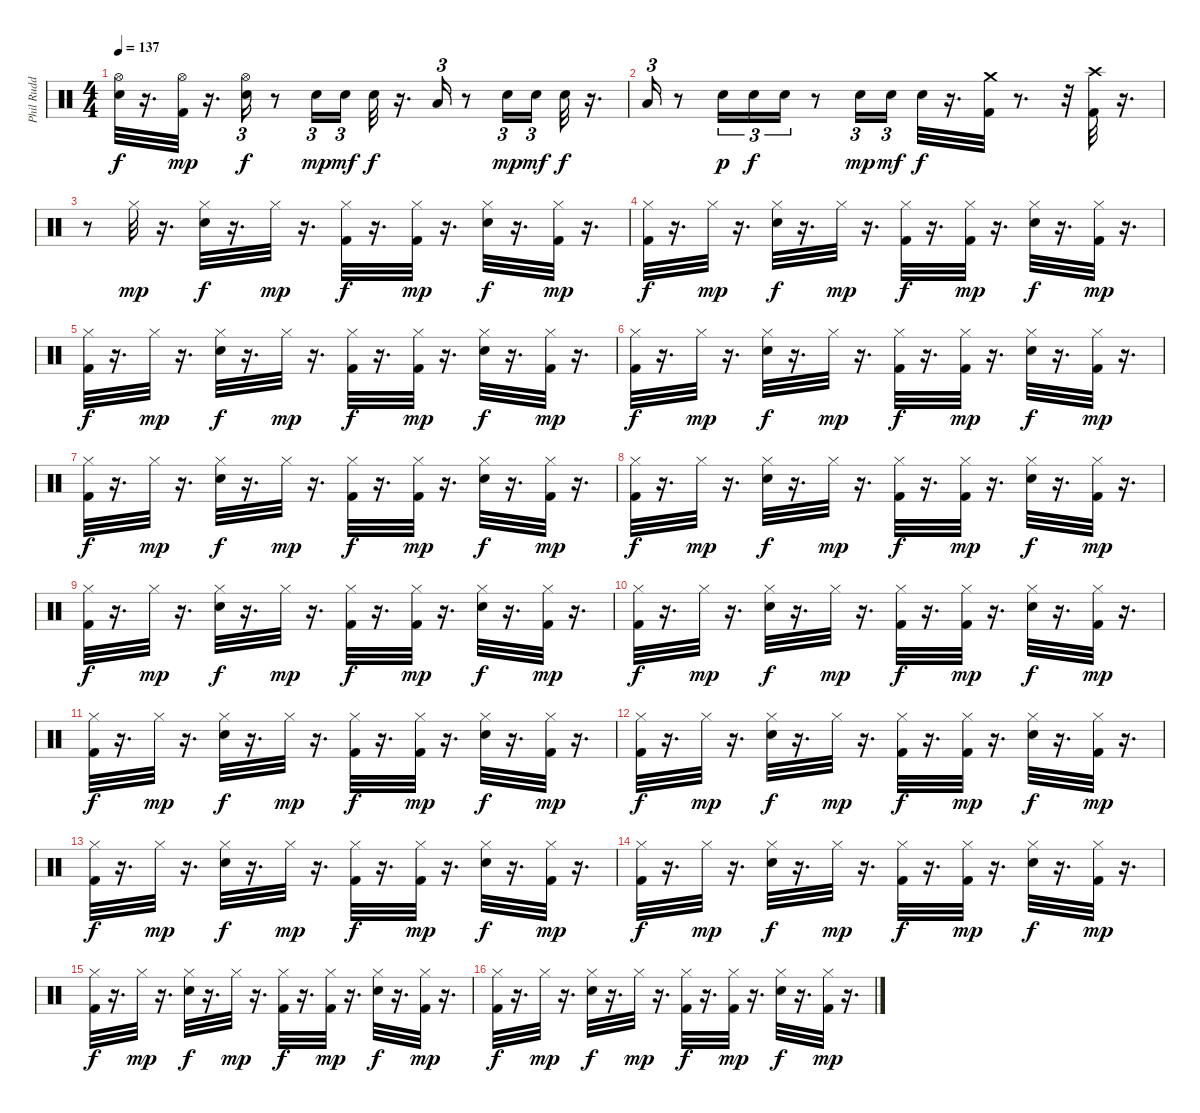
\track ("Phil Rudd" "Phil Rudd") {instrument percussion}
\staff
\articulation defaults
\ts (4 4)
\tempo 137
\clef neutral
\ks c
("Hi-Hat (open)" "Electric Snare (hit)").32{dy f} r.16{d} ("Hi-Hat (open)" "Kick (hit) 2").32{dy mp} r.16{d} ("Hi-Hat (open)" "Electric Snare (hit)").16{tu (3 2) dy f} r.8 "Electric Snare (hit)".16{tu (3 2) dy mp} "Electric Snare (hit)".16{tu (3 2) dy mf} "Electric Snare (hit)".32{dy f} r.16{d} "Low Tom (hit)".16{tu (3 2)} r.8 "Electric Snare (hit)".16{tu (3 2) dy mp} "Electric Snare (hit)".16{tu (3 2) dy mf beam splitsecondary} "Electric Snare (hit)".32{dy f} r.16{d} |
"Low Tom (hit)".16{tu (3 2)} r.8 "Electric Snare (hit)".16{tu (3 2) dy p} "Electric Snare (hit)".16{tu (3 2) dy f} "Electric Snare (hit)".16{tu (3 2)} r.8 "Electric Snare (hit)".16{tu (3 2) dy mp} "Electric Snare (hit)".16{tu (3 2) dy mf} "Electric Snare (hit)".32{dy f} r.16{d} ("Crash medium (hit)" "Kick (hit) 2").32 r.8{d} r.32 ("Crash high (hit)" "Kick (hit) 2").32 r.16{d} |
r.8 "Hi-Hat (closed)".32{dy mp} r.16{d} ("Hi-Hat (closed)" "Electric Snare (hit)").32{dy f} r.16{d} "Hi-Hat (closed)".32{dy mp} r.16{d} ("Hi-Hat (closed)" "Kick (hit) 2").32{dy f} r.16{d} ("Hi-Hat (closed)" "Kick (hit) 2").32{dy mp} r.16{d} ("Hi-Hat (closed)" "Electric Snare (hit)").32{dy f} r.16{d} ("Hi-Hat (closed)" "Kick (hit) 2").32{dy mp} r.16{d} |
("Hi-Hat (closed)" "Kick (hit) 2").32{dy f} r.16{d} "Hi-Hat (closed)".32{dy mp} r.16{d} ("Hi-Hat (closed)" "Electric Snare (hit)").32{dy f} r.16{d} "Hi-Hat (closed)".32{dy mp} r.16{d} ("Hi-Hat (closed)" "Kick (hit) 2").32{dy f} r.16{d} ("Hi-Hat (closed)" "Kick (hit) 2").32{dy mp} r.16{d} ("Hi-Hat (closed)" "Electric Snare (hit)").32{dy f} r.16{d} ("Hi-Hat (closed)" "Kick (hit) 2").32{dy mp} r.16{d} |
("Hi-Hat (closed)" "Kick (hit) 2").32{dy f} r.16{d} "Hi-Hat (closed)".32{dy mp} r.16{d} ("Hi-Hat (closed)" "Electric Snare (hit)").32{dy f} r.16{d} "Hi-Hat (closed)".32{dy mp} r.16{d} ("Hi-Hat (closed)" "Kick (hit) 2").32{dy f} r.16{d} ("Hi-Hat (closed)" "Kick (hit) 2").32{dy mp} r.16{d} ("Hi-Hat (closed)" "Electric Snare (hit)").32{dy f} r.16{d} ("Hi-Hat (closed)" "Kick (hit) 2").32{dy mp} r.16{d} |
("Hi-Hat (closed)" "Kick (hit) 2").32{dy f} r.16{d} "Hi-Hat (closed)".32{dy mp} r.16{d} ("Hi-Hat (closed)" "Electric Snare (hit)").32{dy f} r.16{d} "Hi-Hat (closed)".32{dy mp} r.16{d} ("Hi-Hat (closed)" "Kick (hit) 2").32{dy f} r.16{d} ("Hi-Hat (closed)" "Kick (hit) 2").32{dy mp} r.16{d} ("Hi-Hat (closed)" "Electric Snare (hit)").32{dy f} r.16{d} ("Hi-Hat (closed)" "Kick (hit) 2").32{dy mp} r.16{d} |
("Hi-Hat (closed)" "Kick (hit) 2").32{dy f} r.16{d} "Hi-Hat (closed)".32{dy mp} r.16{d} ("Hi-Hat (closed)" "Electric Snare (hit)").32{dy f} r.16{d} "Hi-Hat (closed)".32{dy mp} r.16{d} ("Hi-Hat (closed)" "Kick (hit) 2").32{dy f} r.16{d} ("Hi-Hat (closed)" "Kick (hit) 2").32{dy mp} r.16{d} ("Hi-Hat (closed)" "Electric Snare (hit)").32{dy f} r.16{d} ("Hi-Hat (closed)" "Kick (hit) 2").32{dy mp} r.16{d} |
("Hi-Hat (closed)" "Kick (hit) 2").32{dy f} r.16{d} "Hi-Hat (closed)".32{dy mp} r.16{d} ("Hi-Hat (closed)" "Electric Snare (hit)").32{dy f} r.16{d} "Hi-Hat (closed)".32{dy mp} r.16{d} ("Hi-Hat (closed)" "Kick (hit) 2").32{dy f} r.16{d} ("Hi-Hat (closed)" "Kick (hit) 2").32{dy mp} r.16{d} ("Hi-Hat (closed)" "Electric Snare (hit)").32{dy f} r.16{d} ("Hi-Hat (closed)" "Kick (hit) 2").32{dy mp} r.16{d} |
("Hi-Hat (closed)" "Kick (hit) 2").32{dy f} r.16{d} "Hi-Hat (closed)".32{dy mp} r.16{d} ("Hi-Hat (closed)" "Electric Snare (hit)").32{dy f} r.16{d} "Hi-Hat (closed)".32{dy mp} r.16{d} ("Hi-Hat (closed)" "Kick (hit) 2").32{dy f} r.16{d} ("Hi-Hat (closed)" "Kick (hit) 2").32{dy mp} r.16{d} ("Hi-Hat (closed)" "Electric Snare (hit)").32{dy f} r.16{d} ("Hi-Hat (closed)" "Kick (hit) 2").32{dy mp} r.16{d} |
("Hi-Hat (closed)" "Kick (hit) 2").32{dy f} r.16{d} "Hi-Hat (closed)".32{dy mp} r.16{d} ("Hi-Hat (closed)" "Electric Snare (hit)").32{dy f} r.16{d} "Hi-Hat (closed)".32{dy mp} r.16{d} ("Hi-Hat (closed)" "Kick (hit) 2").32{dy f} r.16{d} ("Hi-Hat (closed)" "Kick (hit) 2").32{dy mp} r.16{d} ("Hi-Hat (closed)" "Electric Snare (hit)").32{dy f} r.16{d} ("Hi-Hat (closed)" "Kick (hit) 2").32{dy mp} r.16{d} |
("Hi-Hat (closed)" "Kick (hit) 2").32{dy f} r.16{d} "Hi-Hat (closed)".32{dy mp} r.16{d} ("Hi-Hat (closed)" "Electric Snare (hit)").32{dy f} r.16{d} "Hi-Hat (closed)".32{dy mp} r.16{d} ("Hi-Hat (closed)" "Kick (hit) 2").32{dy f} r.16{d} ("Hi-Hat (closed)" "Kick (hit) 2").32{dy mp} r.16{d} ("Hi-Hat (closed)" "Electric Snare (hit)").32{dy f} r.16{d} ("Hi-Hat (closed)" "Kick (hit) 2").32{dy mp} r.16{d} |
("Hi-Hat (closed)" "Kick (hit) 2").32{dy f} r.16{d} "Hi-Hat (closed)".32{dy mp} r.16{d} ("Hi-Hat (closed)" "Electric Snare (hit)").32{dy f} r.16{d} "Hi-Hat (closed)".32{dy mp} r.16{d} ("Hi-Hat (closed)" "Kick (hit) 2").32{dy f} r.16{d} ("Hi-Hat (closed)" "Kick (hit) 2").32{dy mp} r.16{d} ("Hi-Hat (closed)" "Electric Snare (hit)").32{dy f} r.16{d} ("Hi-Hat (closed)" "Kick (hit) 2").32{dy mp} r.16{d} |
("Hi-Hat (closed)" "Kick (hit) 2").32{dy f} r.16{d} "Hi-Hat (closed)".32{dy mp} r.16{d} ("Hi-Hat (closed)" "Electric Snare (hit)").32{dy f} r.16{d} "Hi-Hat (closed)".32{dy mp} r.16{d} ("Hi-Hat (closed)" "Kick (hit) 2").32{dy f} r.16{d} ("Hi-Hat (closed)" "Kick (hit) 2").32{dy mp} r.16{d} ("Hi-Hat (closed)" "Electric Snare (hit)").32{dy f} r.16{d} ("Hi-Hat (closed)" "Kick (hit) 2").32{dy mp} r.16{d} |
("Hi-Hat (closed)" "Kick (hit) 2").32{dy f} r.16{d} "Hi-Hat (closed)".32{dy mp} r.16{d} ("Hi-Hat (closed)" "Electric Snare (hit)").32{dy f} r.16{d} "Hi-Hat (closed)".32{dy mp} r.16{d} ("Hi-Hat (closed)" "Kick (hit) 2").32{dy f} r.16{d} ("Hi-Hat (closed)" "Kick (hit) 2").32{dy mp} r.16{d} ("Hi-Hat (closed)" "Electric Snare (hit)").32{dy f} r.16{d} ("Hi-Hat (closed)" "Kick (hit) 2").32{dy mp} r.16{d} |
("Hi-Hat (closed)" "Kick (hit) 2").32{dy f} r.16{d} "Hi-Hat (closed)".32{dy mp} r.16{d} ("Hi-Hat (closed)" "Electric Snare (hit)").32{dy f} r.16{d} "Hi-Hat (closed)".32{dy mp} r.16{d} ("Hi-Hat (closed)" "Kick (hit) 2").32{dy f} r.16{d} ("Hi-Hat (closed)" "Kick (hit) 2").32{dy mp} r.16{d} ("Hi-Hat (closed)" "Electric Snare (hit)").32{dy f} r.16{d} ("Hi-Hat (closed)" "Kick (hit) 2").32{dy mp} r.16{d} |
("Hi-Hat (closed)" "Kick (hit) 2").32{dy f} r.16{d} "Hi-Hat (closed)".32{dy mp} r.16{d} ("Hi-Hat (closed)" "Electric Snare (hit)").32{dy f} r.16{d} "Hi-Hat (closed)".32{dy mp} r.16{d} ("Hi-Hat (closed)" "Kick (hit) 2").32{dy f} r.16{d} ("Hi-Hat (closed)" "Kick (hit) 2").32{dy mp} r.16{d} ("Hi-Hat (closed)" "Electric Snare (hit)").32{dy f} r.16{d} ("Hi-Hat (closed)" "Kick (hit) 2").32{dy mp} r.16{d}
